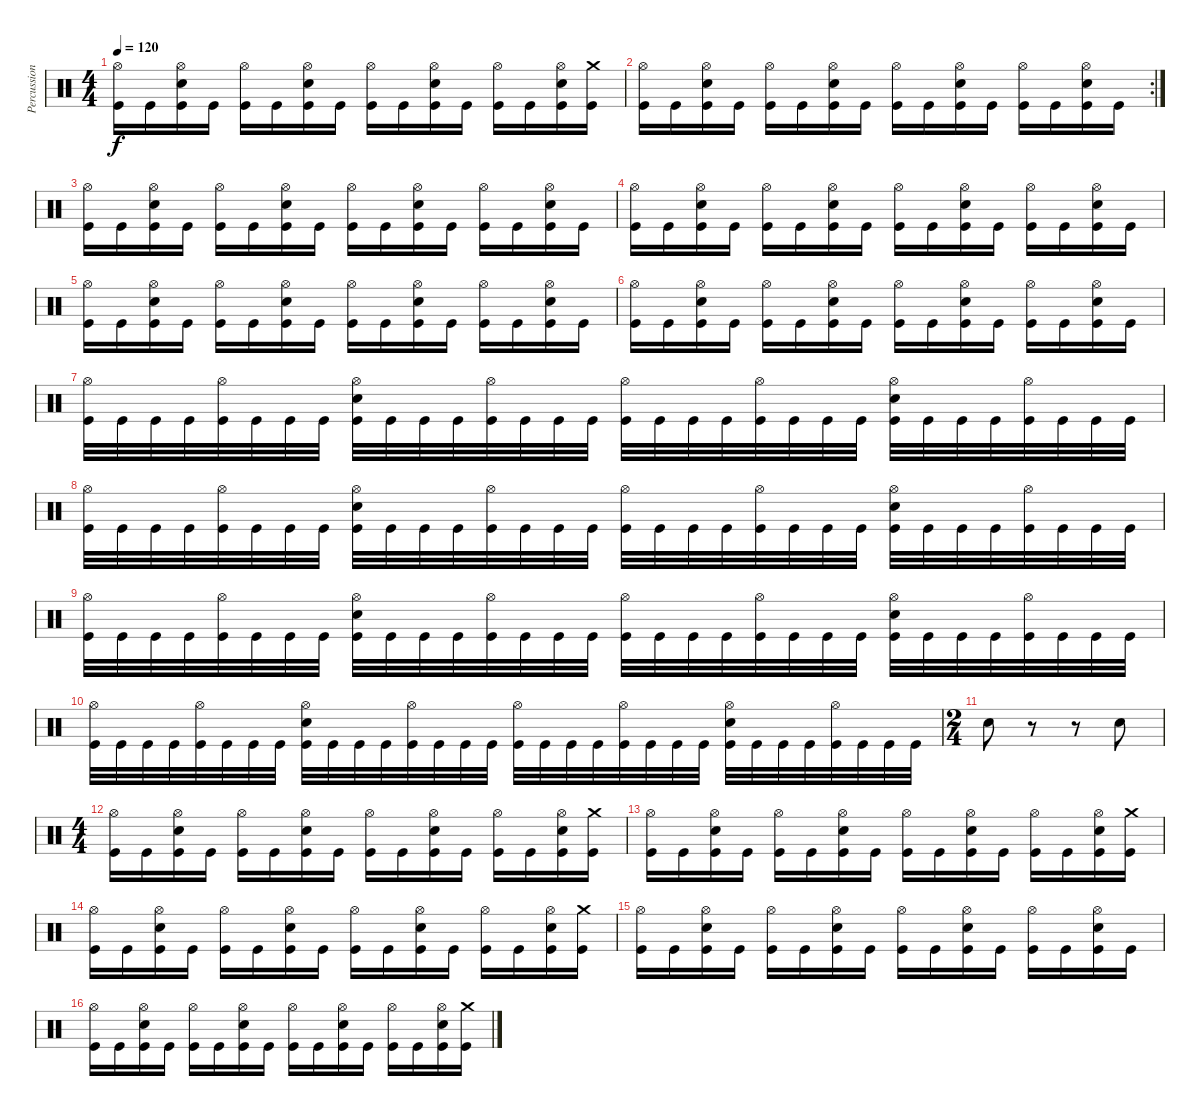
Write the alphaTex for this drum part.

\track ("Percussion" "Percussion") {instrument percussion}
\staff {score}
\articulation defaults
\ts (4 4)
\tempo 120
\clef neutral
\ks c
("Hi-Hat (open)" "Kick (hit)").16{dy f} "Kick (hit)".16 ("Hi-Hat (open)" "Snare (hit) 2" "Kick (hit)").16 "Kick (hit)".16 ("Hi-Hat (open)" "Kick (hit)").16 "Kick (hit)".16 ("Hi-Hat (open)" "Snare (hit) 2" "Kick (hit)").16 "Kick (hit)".16 ("Hi-Hat (open)" "Kick (hit)").16 "Kick (hit)".16 ("Hi-Hat (open)" "Snare (hit) 2" "Kick (hit)").16 "Kick (hit)".16 ("Hi-Hat (open)" "Kick (hit)").16 "Kick (hit)".16 ("Hi-Hat (open)" "Snare (hit) 2" "Kick (hit)").16 ("Crash medium (hit)" "Kick (hit)").16 |
\rc 2
("Hi-Hat (open)" "Kick (hit)").16 "Kick (hit)".16 ("Hi-Hat (open)" "Snare (hit) 2" "Kick (hit)").16 "Kick (hit)".16 ("Hi-Hat (open)" "Kick (hit)").16 "Kick (hit)".16 ("Hi-Hat (open)" "Snare (hit) 2" "Kick (hit)").16 "Kick (hit)".16 ("Hi-Hat (open)" "Kick (hit)").16 "Kick (hit)".16 ("Hi-Hat (open)" "Snare (hit) 2" "Kick (hit)").16 "Kick (hit)".16 ("Hi-Hat (open)" "Kick (hit)").16 "Kick (hit)".16 ("Hi-Hat (open)" "Snare (hit) 2" "Kick (hit)").16 "Kick (hit)".16 |
("Hi-Hat (open)" "Kick (hit)").16 "Kick (hit)".16 ("Hi-Hat (open)" "Snare (hit) 2" "Kick (hit)").16 "Kick (hit)".16 ("Hi-Hat (open)" "Kick (hit)").16 "Kick (hit)".16 ("Hi-Hat (open)" "Snare (hit) 2" "Kick (hit)").16 "Kick (hit)".16 ("Hi-Hat (open)" "Kick (hit)").16 "Kick (hit)".16 ("Hi-Hat (open)" "Snare (hit) 2" "Kick (hit)").16 "Kick (hit)".16 ("Hi-Hat (open)" "Kick (hit)").16 "Kick (hit)".16 ("Hi-Hat (open)" "Snare (hit) 2" "Kick (hit)").16 "Kick (hit)".16 |
("Hi-Hat (open)" "Kick (hit)").16 "Kick (hit)".16 ("Hi-Hat (open)" "Snare (hit) 2" "Kick (hit)").16 "Kick (hit)".16 ("Hi-Hat (open)" "Kick (hit)").16 "Kick (hit)".16 ("Hi-Hat (open)" "Snare (hit) 2" "Kick (hit)").16 "Kick (hit)".16 ("Hi-Hat (open)" "Kick (hit)").16 "Kick (hit)".16 ("Hi-Hat (open)" "Snare (hit) 2" "Kick (hit)").16 "Kick (hit)".16 ("Hi-Hat (open)" "Kick (hit)").16 "Kick (hit)".16 ("Hi-Hat (open)" "Snare (hit) 2" "Kick (hit)").16 "Kick (hit)".16 |
("Hi-Hat (open)" "Kick (hit)").16 "Kick (hit)".16 ("Hi-Hat (open)" "Snare (hit) 2" "Kick (hit)").16 "Kick (hit)".16 ("Hi-Hat (open)" "Kick (hit)").16 "Kick (hit)".16 ("Hi-Hat (open)" "Snare (hit) 2" "Kick (hit)").16 "Kick (hit)".16 ("Hi-Hat (open)" "Kick (hit)").16 "Kick (hit)".16 ("Hi-Hat (open)" "Snare (hit) 2" "Kick (hit)").16 "Kick (hit)".16 ("Hi-Hat (open)" "Kick (hit)").16 "Kick (hit)".16 ("Hi-Hat (open)" "Snare (hit) 2" "Kick (hit)").16 "Kick (hit)".16 |
("Hi-Hat (open)" "Kick (hit)").16 "Kick (hit)".16 ("Hi-Hat (open)" "Snare (hit) 2" "Kick (hit)").16 "Kick (hit)".16 ("Hi-Hat (open)" "Kick (hit)").16 "Kick (hit)".16 ("Hi-Hat (open)" "Snare (hit) 2" "Kick (hit)").16 "Kick (hit)".16 ("Hi-Hat (open)" "Kick (hit)").16 "Kick (hit)".16 ("Hi-Hat (open)" "Snare (hit) 2" "Kick (hit)").16 "Kick (hit)".16 ("Hi-Hat (open)" "Kick (hit)").16 "Kick (hit)".16 ("Hi-Hat (open)" "Snare (hit) 2" "Kick (hit)").16 "Kick (hit)".16 |
("Hi-Hat (open)" "Kick (hit)").32 "Kick (hit)".32 "Kick (hit)".32 "Kick (hit)".32 ("Hi-Hat (open)" "Kick (hit)").32 "Kick (hit)".32 "Kick (hit)".32 "Kick (hit)".32 ("Hi-Hat (open)" "Snare (hit) 2" "Kick (hit)").32 "Kick (hit)".32 "Kick (hit)".32 "Kick (hit)".32 ("Hi-Hat (open)" "Kick (hit)").32 "Kick (hit)".32 "Kick (hit)".32 "Kick (hit)".32 ("Hi-Hat (open)" "Kick (hit)").32 "Kick (hit)".32 "Kick (hit)".32 "Kick (hit)".32 ("Hi-Hat (open)" "Kick (hit)").32 "Kick (hit)".32 "Kick (hit)".32 "Kick (hit)".32 ("Hi-Hat (open)" "Snare (hit) 2" "Kick (hit)").32 "Kick (hit)".32 "Kick (hit)".32 "Kick (hit)".32 ("Hi-Hat (open)" "Kick (hit)").32 "Kick (hit)".32 "Kick (hit)".32 "Kick (hit)".32 |
("Hi-Hat (open)" "Kick (hit)").32 "Kick (hit)".32 "Kick (hit)".32 "Kick (hit)".32 ("Hi-Hat (open)" "Kick (hit)").32 "Kick (hit)".32 "Kick (hit)".32 "Kick (hit)".32 ("Hi-Hat (open)" "Snare (hit) 2" "Kick (hit)").32 "Kick (hit)".32 "Kick (hit)".32 "Kick (hit)".32 ("Hi-Hat (open)" "Kick (hit)").32 "Kick (hit)".32 "Kick (hit)".32 "Kick (hit)".32 ("Hi-Hat (open)" "Kick (hit)").32 "Kick (hit)".32 "Kick (hit)".32 "Kick (hit)".32 ("Hi-Hat (open)" "Kick (hit)").32 "Kick (hit)".32 "Kick (hit)".32 "Kick (hit)".32 ("Hi-Hat (open)" "Snare (hit) 2" "Kick (hit)").32 "Kick (hit)".32 "Kick (hit)".32 "Kick (hit)".32 ("Hi-Hat (open)" "Kick (hit)").32 "Kick (hit)".32 "Kick (hit)".32 "Kick (hit)".32 |
("Hi-Hat (open)" "Kick (hit)").32 "Kick (hit)".32 "Kick (hit)".32 "Kick (hit)".32 ("Hi-Hat (open)" "Kick (hit)").32 "Kick (hit)".32 "Kick (hit)".32 "Kick (hit)".32 ("Hi-Hat (open)" "Snare (hit) 2" "Kick (hit)").32 "Kick (hit)".32 "Kick (hit)".32 "Kick (hit)".32 ("Hi-Hat (open)" "Kick (hit)").32 "Kick (hit)".32 "Kick (hit)".32 "Kick (hit)".32 ("Hi-Hat (open)" "Kick (hit)").32 "Kick (hit)".32 "Kick (hit)".32 "Kick (hit)".32 ("Hi-Hat (open)" "Kick (hit)").32 "Kick (hit)".32 "Kick (hit)".32 "Kick (hit)".32 ("Hi-Hat (open)" "Snare (hit) 2" "Kick (hit)").32 "Kick (hit)".32 "Kick (hit)".32 "Kick (hit)".32 ("Hi-Hat (open)" "Kick (hit)").32 "Kick (hit)".32 "Kick (hit)".32 "Kick (hit)".32 |
("Hi-Hat (open)" "Kick (hit)").32 "Kick (hit)".32 "Kick (hit)".32 "Kick (hit)".32 ("Hi-Hat (open)" "Kick (hit)").32 "Kick (hit)".32 "Kick (hit)".32 "Kick (hit)".32 ("Hi-Hat (open)" "Snare (hit) 2" "Kick (hit)").32 "Kick (hit)".32 "Kick (hit)".32 "Kick (hit)".32 ("Hi-Hat (open)" "Kick (hit)").32 "Kick (hit)".32 "Kick (hit)".32 "Kick (hit)".32 ("Hi-Hat (open)" "Kick (hit)").32 "Kick (hit)".32 "Kick (hit)".32 "Kick (hit)".32 ("Hi-Hat (open)" "Kick (hit)").32 "Kick (hit)".32 "Kick (hit)".32 "Kick (hit)".32 ("Hi-Hat (open)" "Snare (hit) 2" "Kick (hit)").32 "Kick (hit)".32 "Kick (hit)".32 "Kick (hit)".32 ("Hi-Hat (open)" "Kick (hit)").32 "Kick (hit)".32 "Kick (hit)".32 "Kick (hit)".32 |
\ts (2 4)
"Snare (hit) 2".8 r.8 r.8 "Snare (hit) 2".8 |
\ts (4 4)
("Hi-Hat (open)" "Kick (hit)").16 "Kick (hit)".16 ("Hi-Hat (open)" "Snare (hit) 2" "Kick (hit)").16 "Kick (hit)".16 ("Hi-Hat (open)" "Kick (hit)").16 "Kick (hit)".16 ("Hi-Hat (open)" "Snare (hit) 2" "Kick (hit)").16 "Kick (hit)".16 ("Hi-Hat (open)" "Kick (hit)").16 "Kick (hit)".16 ("Hi-Hat (open)" "Snare (hit) 2" "Kick (hit)").16 "Kick (hit)".16 ("Hi-Hat (open)" "Kick (hit)").16 "Kick (hit)".16 ("Hi-Hat (open)" "Snare (hit) 2" "Kick (hit)").16 ("Crash medium (hit)" "Kick (hit)").16 |
("Hi-Hat (open)" "Kick (hit)").16 "Kick (hit)".16 ("Hi-Hat (open)" "Snare (hit) 2" "Kick (hit)").16 "Kick (hit)".16 ("Hi-Hat (open)" "Kick (hit)").16 "Kick (hit)".16 ("Hi-Hat (open)" "Snare (hit) 2" "Kick (hit)").16 "Kick (hit)".16 ("Hi-Hat (open)" "Kick (hit)").16 "Kick (hit)".16 ("Hi-Hat (open)" "Snare (hit) 2" "Kick (hit)").16 "Kick (hit)".16 ("Hi-Hat (open)" "Kick (hit)").16 "Kick (hit)".16 ("Hi-Hat (open)" "Snare (hit) 2" "Kick (hit)").16 ("Crash medium (hit)" "Kick (hit)").16 |
("Hi-Hat (open)" "Kick (hit)").16 "Kick (hit)".16 ("Hi-Hat (open)" "Snare (hit) 2" "Kick (hit)").16 "Kick (hit)".16 ("Hi-Hat (open)" "Kick (hit)").16 "Kick (hit)".16 ("Hi-Hat (open)" "Snare (hit) 2" "Kick (hit)").16 "Kick (hit)".16 ("Hi-Hat (open)" "Kick (hit)").16 "Kick (hit)".16 ("Hi-Hat (open)" "Snare (hit) 2" "Kick (hit)").16 "Kick (hit)".16 ("Hi-Hat (open)" "Kick (hit)").16 "Kick (hit)".16 ("Hi-Hat (open)" "Snare (hit) 2" "Kick (hit)").16 ("Crash medium (hit)" "Kick (hit)").16 |
("Hi-Hat (open)" "Kick (hit)").16 "Kick (hit)".16 ("Hi-Hat (open)" "Snare (hit) 2" "Kick (hit)").16 "Kick (hit)".16 ("Hi-Hat (open)" "Kick (hit)").16 "Kick (hit)".16 ("Hi-Hat (open)" "Snare (hit) 2" "Kick (hit)").16 "Kick (hit)".16 ("Hi-Hat (open)" "Kick (hit)").16 "Kick (hit)".16 ("Hi-Hat (open)" "Snare (hit) 2" "Kick (hit)").16 "Kick (hit)".16 ("Hi-Hat (open)" "Kick (hit)").16 "Kick (hit)".16 ("Hi-Hat (open)" "Snare (hit) 2" "Kick (hit)").16 "Kick (hit)".16 |
("Hi-Hat (open)" "Kick (hit)").16 "Kick (hit)".16 ("Hi-Hat (open)" "Snare (hit) 2" "Kick (hit)").16 "Kick (hit)".16 ("Hi-Hat (open)" "Kick (hit)").16 "Kick (hit)".16 ("Hi-Hat (open)" "Snare (hit) 2" "Kick (hit)").16 "Kick (hit)".16 ("Hi-Hat (open)" "Kick (hit)").16 "Kick (hit)".16 ("Hi-Hat (open)" "Snare (hit) 2" "Kick (hit)").16 "Kick (hit)".16 ("Hi-Hat (open)" "Kick (hit)").16 "Kick (hit)".16 ("Hi-Hat (open)" "Snare (hit) 2" "Kick (hit)").16 ("Crash medium (hit)" "Kick (hit)").16
